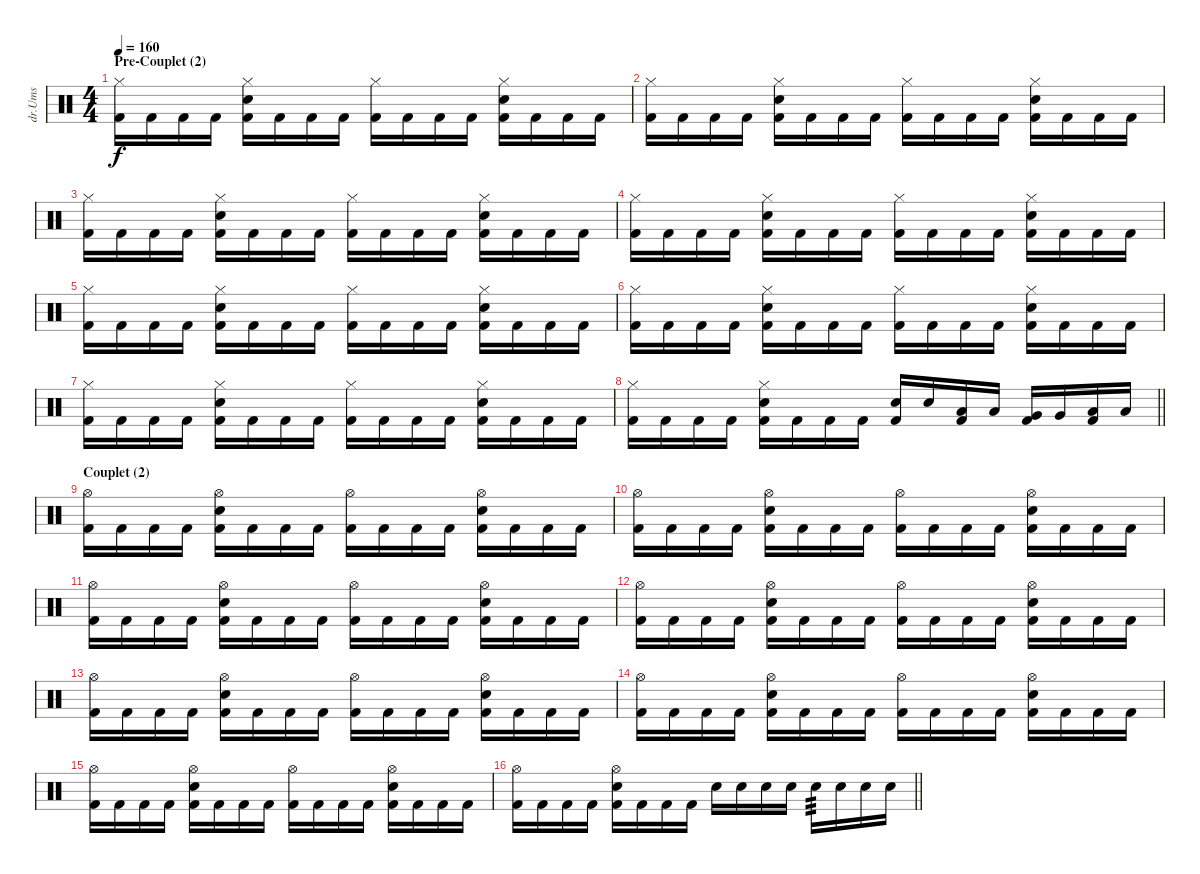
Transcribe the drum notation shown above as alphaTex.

\track ("dr.Ums" "dr.Ums") {instrument percussion}
\staff {score}
\articulation defaults
\ts (4 4)
\section ("" "Pre-Couplet (2)")
\tempo 160
\clef neutral
\ks c
("Hi-Hat (closed)" "Kick (hit) 2").16{dy f} "Kick (hit) 2".16 "Kick (hit) 2".16 "Kick (hit) 2".16 ("Snare (hit) 2" "Hi-Hat (closed)" "Kick (hit) 2").16 "Kick (hit) 2".16 "Kick (hit) 2".16 "Kick (hit) 2".16 ("Hi-Hat (closed)" "Kick (hit) 2").16 "Kick (hit) 2".16 "Kick (hit) 2".16 "Kick (hit) 2".16 ("Snare (hit) 2" "Hi-Hat (closed)" "Kick (hit) 2").16 "Kick (hit) 2".16 "Kick (hit) 2".16 "Kick (hit) 2".16 |
("Hi-Hat (closed)" "Kick (hit) 2").16 "Kick (hit) 2".16 "Kick (hit) 2".16 "Kick (hit) 2".16 ("Snare (hit) 2" "Hi-Hat (closed)" "Kick (hit) 2").16 "Kick (hit) 2".16 "Kick (hit) 2".16 "Kick (hit) 2".16 ("Hi-Hat (closed)" "Kick (hit) 2").16 "Kick (hit) 2".16 "Kick (hit) 2".16 "Kick (hit) 2".16 ("Snare (hit) 2" "Hi-Hat (closed)" "Kick (hit) 2").16 "Kick (hit) 2".16 "Kick (hit) 2".16 "Kick (hit) 2".16 |
("Hi-Hat (closed)" "Kick (hit) 2").16 "Kick (hit) 2".16 "Kick (hit) 2".16 "Kick (hit) 2".16 ("Snare (hit) 2" "Hi-Hat (closed)" "Kick (hit) 2").16 "Kick (hit) 2".16 "Kick (hit) 2".16 "Kick (hit) 2".16 ("Hi-Hat (closed)" "Kick (hit) 2").16 "Kick (hit) 2".16 "Kick (hit) 2".16 "Kick (hit) 2".16 ("Snare (hit) 2" "Hi-Hat (closed)" "Kick (hit) 2").16 "Kick (hit) 2".16 "Kick (hit) 2".16 "Kick (hit) 2".16 |
("Hi-Hat (closed)" "Kick (hit) 2").16 "Kick (hit) 2".16 "Kick (hit) 2".16 "Kick (hit) 2".16 ("Snare (hit) 2" "Hi-Hat (closed)" "Kick (hit) 2").16 "Kick (hit) 2".16 "Kick (hit) 2".16 "Kick (hit) 2".16 ("Hi-Hat (closed)" "Kick (hit) 2").16 "Kick (hit) 2".16 "Kick (hit) 2".16 "Kick (hit) 2".16 ("Snare (hit) 2" "Hi-Hat (closed)" "Kick (hit) 2").16 "Kick (hit) 2".16 "Kick (hit) 2".16 "Kick (hit) 2".16 |
("Hi-Hat (closed)" "Kick (hit) 2").16 "Kick (hit) 2".16 "Kick (hit) 2".16 "Kick (hit) 2".16 ("Snare (hit) 2" "Hi-Hat (closed)" "Kick (hit) 2").16 "Kick (hit) 2".16 "Kick (hit) 2".16 "Kick (hit) 2".16 ("Hi-Hat (closed)" "Kick (hit) 2").16 "Kick (hit) 2".16 "Kick (hit) 2".16 "Kick (hit) 2".16 ("Snare (hit) 2" "Hi-Hat (closed)" "Kick (hit) 2").16 "Kick (hit) 2".16 "Kick (hit) 2".16 "Kick (hit) 2".16 |
("Hi-Hat (closed)" "Kick (hit) 2").16 "Kick (hit) 2".16 "Kick (hit) 2".16 "Kick (hit) 2".16 ("Snare (hit) 2" "Hi-Hat (closed)" "Kick (hit) 2").16 "Kick (hit) 2".16 "Kick (hit) 2".16 "Kick (hit) 2".16 ("Hi-Hat (closed)" "Kick (hit) 2").16 "Kick (hit) 2".16 "Kick (hit) 2".16 "Kick (hit) 2".16 ("Snare (hit) 2" "Hi-Hat (closed)" "Kick (hit) 2").16 "Kick (hit) 2".16 "Kick (hit) 2".16 "Kick (hit) 2".16 |
("Hi-Hat (closed)" "Kick (hit) 2").16 "Kick (hit) 2".16 "Kick (hit) 2".16 "Kick (hit) 2".16 ("Snare (hit) 2" "Hi-Hat (closed)" "Kick (hit) 2").16 "Kick (hit) 2".16 "Kick (hit) 2".16 "Kick (hit) 2".16 ("Hi-Hat (closed)" "Kick (hit) 2").16 "Kick (hit) 2".16 "Kick (hit) 2".16 "Kick (hit) 2".16 ("Snare (hit) 2" "Hi-Hat (closed)" "Kick (hit) 2").16 "Kick (hit) 2".16 "Kick (hit) 2".16 "Kick (hit) 2".16 |
\barLineRight lightlight
("Hi-Hat (closed)" "Kick (hit) 2").16 "Kick (hit) 2".16 "Kick (hit) 2".16 "Kick (hit) 2".16 ("Snare (hit) 2" "Hi-Hat (closed)" "Kick (hit) 2").16 "Kick (hit) 2".16 "Kick (hit) 2".16 "Kick (hit) 2".16 ("Snare (hit) 2" "Kick (hit) 2").16 "Snare (hit) 2".16 ("Low Tom (hit)" "Kick (hit) 2").16 "Low Tom (hit)".16 ("Very Low Tom (hit)" "Kick (hit) 2").16 "Very Low Tom (hit)".16 ("Low Floor Tom (hit)" "Kick (hit) 2").16 "Low Floor Tom (hit)".16 |
\section ("" "Couplet (2)")
("Hi-Hat (open)" "Kick (hit) 2").16 "Kick (hit) 2".16 "Kick (hit) 2".16 "Kick (hit) 2".16 ("Snare (hit) 2" "Hi-Hat (open)" "Kick (hit) 2").16 "Kick (hit) 2".16 "Kick (hit) 2".16 "Kick (hit) 2".16 ("Hi-Hat (open)" "Kick (hit) 2").16 "Kick (hit) 2".16 "Kick (hit) 2".16 "Kick (hit) 2".16 ("Snare (hit) 2" "Hi-Hat (open)" "Kick (hit) 2").16 "Kick (hit) 2".16 "Kick (hit) 2".16 "Kick (hit) 2".16 |
("Hi-Hat (open)" "Kick (hit) 2").16 "Kick (hit) 2".16 "Kick (hit) 2".16 "Kick (hit) 2".16 ("Snare (hit) 2" "Hi-Hat (open)" "Kick (hit) 2").16 "Kick (hit) 2".16 "Kick (hit) 2".16 "Kick (hit) 2".16 ("Hi-Hat (open)" "Kick (hit) 2").16 "Kick (hit) 2".16 "Kick (hit) 2".16 "Kick (hit) 2".16 ("Snare (hit) 2" "Hi-Hat (open)" "Kick (hit) 2").16 "Kick (hit) 2".16 "Kick (hit) 2".16 "Kick (hit) 2".16 |
("Hi-Hat (open)" "Kick (hit) 2").16 "Kick (hit) 2".16 "Kick (hit) 2".16 "Kick (hit) 2".16 ("Snare (hit) 2" "Hi-Hat (open)" "Kick (hit) 2").16 "Kick (hit) 2".16 "Kick (hit) 2".16 "Kick (hit) 2".16 ("Hi-Hat (open)" "Kick (hit) 2").16 "Kick (hit) 2".16 "Kick (hit) 2".16 "Kick (hit) 2".16 ("Snare (hit) 2" "Hi-Hat (open)" "Kick (hit) 2").16 "Kick (hit) 2".16 "Kick (hit) 2".16 "Kick (hit) 2".16 |
("Hi-Hat (open)" "Kick (hit) 2").16 "Kick (hit) 2".16 "Kick (hit) 2".16 "Kick (hit) 2".16 ("Snare (hit) 2" "Hi-Hat (open)" "Kick (hit) 2").16 "Kick (hit) 2".16 "Kick (hit) 2".16 "Kick (hit) 2".16 ("Hi-Hat (open)" "Kick (hit) 2").16 "Kick (hit) 2".16 "Kick (hit) 2".16 "Kick (hit) 2".16 ("Snare (hit) 2" "Hi-Hat (open)" "Kick (hit) 2").16 "Kick (hit) 2".16 "Kick (hit) 2".16 "Kick (hit) 2".16 |
("Hi-Hat (open)" "Kick (hit) 2").16 "Kick (hit) 2".16 "Kick (hit) 2".16 "Kick (hit) 2".16 ("Snare (hit) 2" "Hi-Hat (open)" "Kick (hit) 2").16 "Kick (hit) 2".16 "Kick (hit) 2".16 "Kick (hit) 2".16 ("Hi-Hat (open)" "Kick (hit) 2").16 "Kick (hit) 2".16 "Kick (hit) 2".16 "Kick (hit) 2".16 ("Snare (hit) 2" "Hi-Hat (open)" "Kick (hit) 2").16 "Kick (hit) 2".16 "Kick (hit) 2".16 "Kick (hit) 2".16 |
("Hi-Hat (open)" "Kick (hit) 2").16 "Kick (hit) 2".16 "Kick (hit) 2".16 "Kick (hit) 2".16 ("Snare (hit) 2" "Hi-Hat (open)" "Kick (hit) 2").16 "Kick (hit) 2".16 "Kick (hit) 2".16 "Kick (hit) 2".16 ("Hi-Hat (open)" "Kick (hit) 2").16 "Kick (hit) 2".16 "Kick (hit) 2".16 "Kick (hit) 2".16 ("Snare (hit) 2" "Hi-Hat (open)" "Kick (hit) 2").16 "Kick (hit) 2".16 "Kick (hit) 2".16 "Kick (hit) 2".16 |
("Hi-Hat (open)" "Kick (hit) 2").16 "Kick (hit) 2".16 "Kick (hit) 2".16 "Kick (hit) 2".16 ("Snare (hit) 2" "Hi-Hat (open)" "Kick (hit) 2").16 "Kick (hit) 2".16 "Kick (hit) 2".16 "Kick (hit) 2".16 ("Hi-Hat (open)" "Kick (hit) 2").16 "Kick (hit) 2".16 "Kick (hit) 2".16 "Kick (hit) 2".16 ("Snare (hit) 2" "Hi-Hat (open)" "Kick (hit) 2").16 "Kick (hit) 2".16 "Kick (hit) 2".16 "Kick (hit) 2".16 |
\barLineRight lightlight
("Hi-Hat (open)" "Kick (hit) 2").16 "Kick (hit) 2".16 "Kick (hit) 2".16 "Kick (hit) 2".16 ("Snare (hit) 2" "Hi-Hat (open)" "Kick (hit) 2").16 "Kick (hit) 2".16 "Kick (hit) 2".16 "Kick (hit) 2".16 "Snare (hit) 2".16 "Snare (hit) 2".16 "Snare (hit) 2".16 "Snare (hit) 2".16 "Snare (hit) 2".16{tp 3} "Snare (hit) 2".16 "Snare (hit) 2".16 "Snare (hit) 2".16
